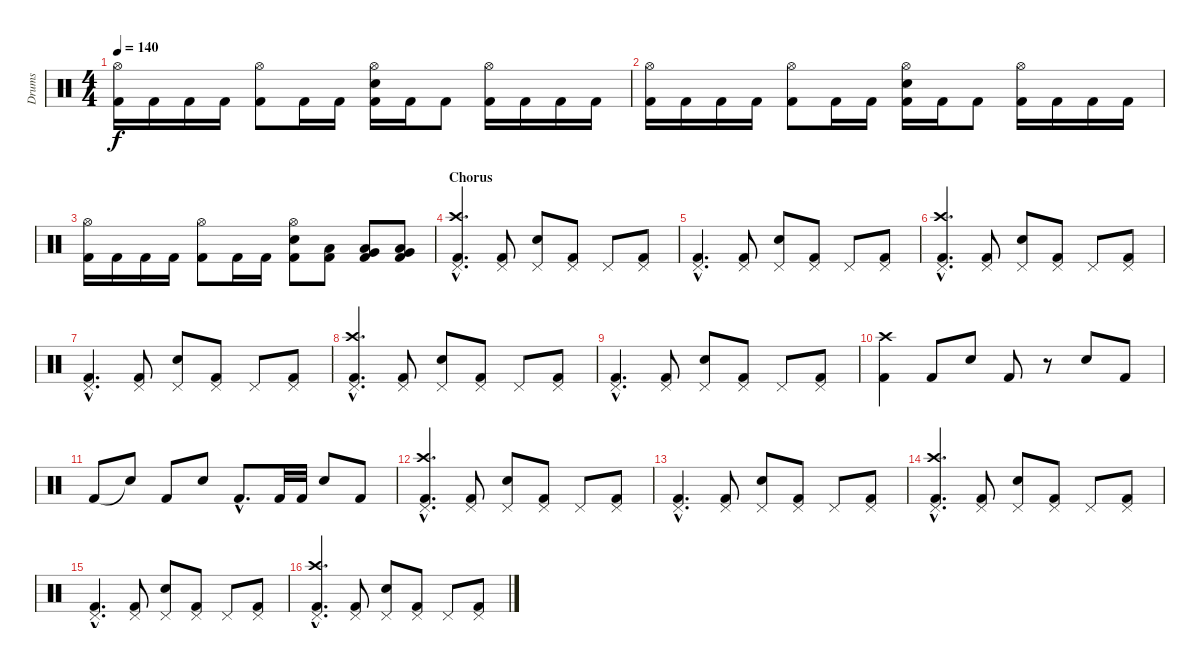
\track ("Drums" "Drums") {instrument percussion}
\staff {score}
\articulation defaults
\ts (4 4)
\tempo 140
\clef neutral
\ks c
("Hi-Hat (open)" "Kick (hit) 2").16{dy f} "Kick (hit) 2".16 "Kick (hit) 2".16 "Kick (hit) 2".16 ("Hi-Hat (open)" "Kick (hit) 2").8 "Kick (hit) 2".16 "Kick (hit) 2".16 ("Hi-Hat (open)" "Electric Snare (hit)" "Kick (hit) 2").16 "Kick (hit) 2".16 "Kick (hit) 2".8 ("Hi-Hat (open)" "Kick (hit) 2").16 "Kick (hit) 2".16 "Kick (hit) 2".16 "Kick (hit) 2".16 |
("Hi-Hat (open)" "Kick (hit) 2").16 "Kick (hit) 2".16 "Kick (hit) 2".16 "Kick (hit) 2".16 ("Hi-Hat (open)" "Kick (hit) 2").8 "Kick (hit) 2".16 "Kick (hit) 2".16 ("Hi-Hat (open)" "Electric Snare (hit)" "Kick (hit) 2").16 "Kick (hit) 2".16 "Kick (hit) 2".8 ("Hi-Hat (open)" "Kick (hit) 2").16 "Kick (hit) 2".16 "Kick (hit) 2".16 "Kick (hit) 2".16 |
("Hi-Hat (open)" "Kick (hit) 2").16 "Kick (hit) 2".16 "Kick (hit) 2".16 "Kick (hit) 2".16 ("Hi-Hat (open)" "Kick (hit) 2").8 "Kick (hit) 2".16 "Kick (hit) 2".16 ("Hi-Hat (open)" "Electric Snare (hit)" "Kick (hit) 2").8 ("Low Floor Tom (hit)" "Kick (hit) 2").8 ("Very Low Tom (hit)" "Low Tom (hit)" "Kick (hit) 2").8 ("Very Low Tom (hit)" "Low Tom (hit)" "Kick (hit) 2").8 |
\section ("" "Chorus")
("Crash high (hit)"{hac} "Pedal Hi-Hat (hit)"{hac} "Kick (hit) 2"{hac}).4{d} ("Pedal Hi-Hat (hit)" "Kick (hit) 2").8 ("Pedal Hi-Hat (hit)" "Electric Snare (hit)").8 ("Pedal Hi-Hat (hit)" "Kick (hit) 2").8 "Pedal Hi-Hat (hit)".8 ("Pedal Hi-Hat (hit)" "Kick (hit) 2").8 |
("Pedal Hi-Hat (hit)"{hac} "Kick (hit) 2"{hac}).4{d} ("Pedal Hi-Hat (hit)" "Kick (hit) 2").8 ("Pedal Hi-Hat (hit)" "Electric Snare (hit)").8 ("Pedal Hi-Hat (hit)" "Kick (hit) 2").8 "Pedal Hi-Hat (hit)".8 ("Pedal Hi-Hat (hit)" "Kick (hit) 2").8 |
("Crash high (hit)"{hac} "Pedal Hi-Hat (hit)"{hac} "Kick (hit) 2"{hac}).4{d} ("Pedal Hi-Hat (hit)" "Kick (hit) 2").8 ("Pedal Hi-Hat (hit)" "Electric Snare (hit)").8 ("Pedal Hi-Hat (hit)" "Kick (hit) 2").8 "Pedal Hi-Hat (hit)".8 ("Pedal Hi-Hat (hit)" "Kick (hit) 2").8 |
("Pedal Hi-Hat (hit)"{hac} "Kick (hit) 2"{hac}).4{d} ("Pedal Hi-Hat (hit)" "Kick (hit) 2").8 ("Pedal Hi-Hat (hit)" "Electric Snare (hit)").8 ("Pedal Hi-Hat (hit)" "Kick (hit) 2").8 "Pedal Hi-Hat (hit)".8 ("Pedal Hi-Hat (hit)" "Kick (hit) 2").8 |
("Crash high (hit)"{hac} "Pedal Hi-Hat (hit)"{hac} "Kick (hit) 2"{hac}).4{d} ("Pedal Hi-Hat (hit)" "Kick (hit) 2").8 ("Pedal Hi-Hat (hit)" "Electric Snare (hit)").8 ("Pedal Hi-Hat (hit)" "Kick (hit) 2").8 "Pedal Hi-Hat (hit)".8 ("Pedal Hi-Hat (hit)" "Kick (hit) 2").8 |
("Pedal Hi-Hat (hit)"{hac} "Kick (hit) 2"{hac}).4{d} ("Pedal Hi-Hat (hit)" "Kick (hit) 2").8 ("Pedal Hi-Hat (hit)" "Electric Snare (hit)").8 ("Pedal Hi-Hat (hit)" "Kick (hit) 2").8 "Pedal Hi-Hat (hit)".8 ("Pedal Hi-Hat (hit)" "Kick (hit) 2").8 |
("Crash high (hit)" "Kick (hit) 2").4 "Kick (hit) 2".8 "Electric Snare (hit)".8 "Kick (hit) 2".8 r.8 "Electric Snare (hit)".8 "Kick (hit) 2".8 |
"Kick (hit) 2".8 "Snare (hit)"{t}.8 "Kick (hit) 2".8 "Electric Snare (hit)".8 "Kick (hit) 2"{hac}.8{d} "Kick (hit) 2".32 "Kick (hit) 2".32 "Electric Snare (hit)".8 "Kick (hit) 2".8 |
("Crash high (hit)"{hac} "Pedal Hi-Hat (hit)"{hac} "Kick (hit) 2"{hac}).4{d} ("Pedal Hi-Hat (hit)" "Kick (hit) 2").8 ("Pedal Hi-Hat (hit)" "Electric Snare (hit)").8 ("Pedal Hi-Hat (hit)" "Kick (hit) 2").8 "Pedal Hi-Hat (hit)".8 ("Pedal Hi-Hat (hit)" "Kick (hit) 2").8 |
("Pedal Hi-Hat (hit)"{hac} "Kick (hit) 2"{hac}).4{d} ("Pedal Hi-Hat (hit)" "Kick (hit) 2").8 ("Pedal Hi-Hat (hit)" "Electric Snare (hit)").8 ("Pedal Hi-Hat (hit)" "Kick (hit) 2").8 "Pedal Hi-Hat (hit)".8 ("Pedal Hi-Hat (hit)" "Kick (hit) 2").8 |
("Crash high (hit)"{hac} "Pedal Hi-Hat (hit)"{hac} "Kick (hit) 2"{hac}).4{d} ("Pedal Hi-Hat (hit)" "Kick (hit) 2").8 ("Pedal Hi-Hat (hit)" "Electric Snare (hit)").8 ("Pedal Hi-Hat (hit)" "Kick (hit) 2").8 "Pedal Hi-Hat (hit)".8 ("Pedal Hi-Hat (hit)" "Kick (hit) 2").8 |
("Pedal Hi-Hat (hit)"{hac} "Kick (hit) 2"{hac}).4{d} ("Pedal Hi-Hat (hit)" "Kick (hit) 2").8 ("Pedal Hi-Hat (hit)" "Electric Snare (hit)").8 ("Pedal Hi-Hat (hit)" "Kick (hit) 2").8 "Pedal Hi-Hat (hit)".8 ("Pedal Hi-Hat (hit)" "Kick (hit) 2").8 |
("Crash high (hit)"{hac} "Pedal Hi-Hat (hit)"{hac} "Kick (hit) 2"{hac}).4{d} ("Pedal Hi-Hat (hit)" "Kick (hit) 2").8 ("Pedal Hi-Hat (hit)" "Electric Snare (hit)").8 ("Pedal Hi-Hat (hit)" "Kick (hit) 2").8 "Pedal Hi-Hat (hit)".8 ("Pedal Hi-Hat (hit)" "Kick (hit) 2").8
